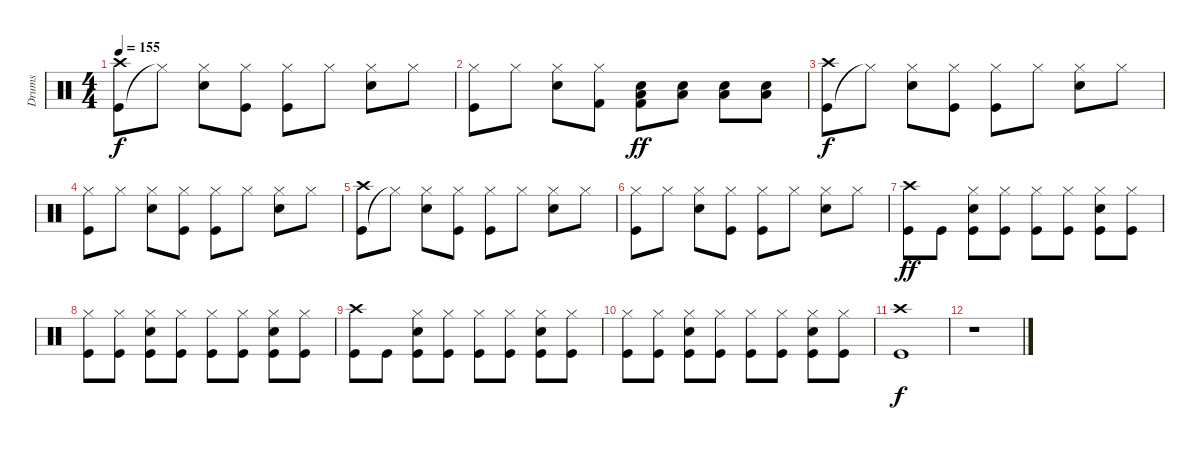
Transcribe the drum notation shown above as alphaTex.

\track ("Drums" "Drums") {instrument percussion}
\staff {score}
\articulation defaults
\ts (4 4)
\tempo 155
\clef neutral
\ks c
("Kick (hit)" "Crash high (hit)").8{dy f} "Hi-Hat (closed)"{t}.8 ("Snare (hit) 2" "Hi-Hat (closed)").8 ("Kick (hit)" "Hi-Hat (closed)").8 ("Kick (hit)" "Hi-Hat (closed)").8 "Hi-Hat (closed)".8 ("Snare (hit) 2" "Hi-Hat (closed)").8 "Hi-Hat (closed)".8 |
("Kick (hit)" "Hi-Hat (closed)").8 "Hi-Hat (closed)".8 ("Snare (hit) 2" "Hi-Hat (closed)").8 ("Kick (hit) 2" "Hi-Hat (closed)").8 ("Snare (hit) 2" "Kick (hit) 2" "Low Floor Tom (hit)").8{dy ff} ("Snare (hit) 2" "Low Floor Tom (hit)").8 ("Snare (hit) 2" "Low Floor Tom (hit)").8 ("Snare (hit) 2" "Low Floor Tom (hit)").8 |
("Kick (hit)" "Crash high (hit)").8{dy f} "Hi-Hat (closed)"{t}.8 ("Snare (hit) 2" "Hi-Hat (closed)").8 ("Kick (hit)" "Hi-Hat (closed)").8 ("Kick (hit)" "Hi-Hat (closed)").8 "Hi-Hat (closed)".8 ("Snare (hit) 2" "Hi-Hat (closed)").8 "Hi-Hat (closed)".8 |
("Kick (hit)" "Hi-Hat (closed)").8 "Hi-Hat (closed)".8 ("Snare (hit) 2" "Hi-Hat (closed)").8 ("Kick (hit)" "Hi-Hat (closed)").8 ("Kick (hit)" "Hi-Hat (closed)").8 "Hi-Hat (closed)".8 ("Snare (hit) 2" "Hi-Hat (closed)").8 "Hi-Hat (closed)".8 |
("Kick (hit)" "Crash high (hit)").8 "Hi-Hat (closed)"{t}.8 ("Snare (hit) 2" "Hi-Hat (closed)").8 ("Kick (hit)" "Hi-Hat (closed)").8 ("Kick (hit)" "Hi-Hat (closed)").8 "Hi-Hat (closed)".8 ("Snare (hit) 2" "Hi-Hat (closed)").8 "Hi-Hat (closed)".8 |
("Kick (hit)" "Hi-Hat (closed)").8 "Hi-Hat (closed)".8 ("Snare (hit) 2" "Hi-Hat (closed)").8 ("Kick (hit)" "Hi-Hat (closed)").8 ("Kick (hit)" "Hi-Hat (closed)").8 "Hi-Hat (closed)".8 ("Snare (hit) 2" "Hi-Hat (closed)").8 "Hi-Hat (closed)".8 |
("Kick (hit)" "Crash high (hit)").8{dy ff} "Kick (hit)".8 ("Kick (hit)" "Snare (hit) 2" "Hi-Hat (closed)").8 ("Kick (hit)" "Hi-Hat (closed)").8 ("Kick (hit)" "Hi-Hat (closed)").8 ("Kick (hit)" "Hi-Hat (closed)").8 ("Kick (hit)" "Snare (hit) 2" "Hi-Hat (closed)").8 ("Kick (hit)" "Hi-Hat (closed)").8 |
("Kick (hit)" "Hi-Hat (closed)").8 ("Kick (hit)" "Hi-Hat (closed)").8 ("Kick (hit)" "Snare (hit) 2" "Hi-Hat (closed)").8 ("Kick (hit)" "Hi-Hat (closed)").8 ("Kick (hit)" "Hi-Hat (closed)").8 ("Kick (hit)" "Hi-Hat (closed)").8 ("Kick (hit)" "Snare (hit) 2" "Hi-Hat (closed)").8 ("Kick (hit)" "Hi-Hat (closed)").8 |
("Kick (hit)" "Crash high (hit)").8 "Kick (hit)".8 ("Kick (hit)" "Snare (hit) 2" "Hi-Hat (closed)").8 ("Kick (hit)" "Hi-Hat (closed)").8 ("Kick (hit)" "Hi-Hat (closed)").8 ("Kick (hit)" "Hi-Hat (closed)").8 ("Kick (hit)" "Snare (hit) 2" "Hi-Hat (closed)").8 ("Kick (hit)" "Hi-Hat (closed)").8 |
("Kick (hit)" "Hi-Hat (closed)").8 ("Kick (hit)" "Hi-Hat (closed)").8 ("Kick (hit)" "Snare (hit) 2" "Hi-Hat (closed)").8 ("Kick (hit)" "Hi-Hat (closed)").8 ("Kick (hit)" "Hi-Hat (closed)").8 ("Kick (hit)" "Hi-Hat (closed)").8 ("Kick (hit)" "Snare (hit) 2" "Hi-Hat (closed)").8 ("Kick (hit)" "Hi-Hat (closed)").8 |
("Kick (hit)" "Crash high (hit)").1{dy f} |
r.1
